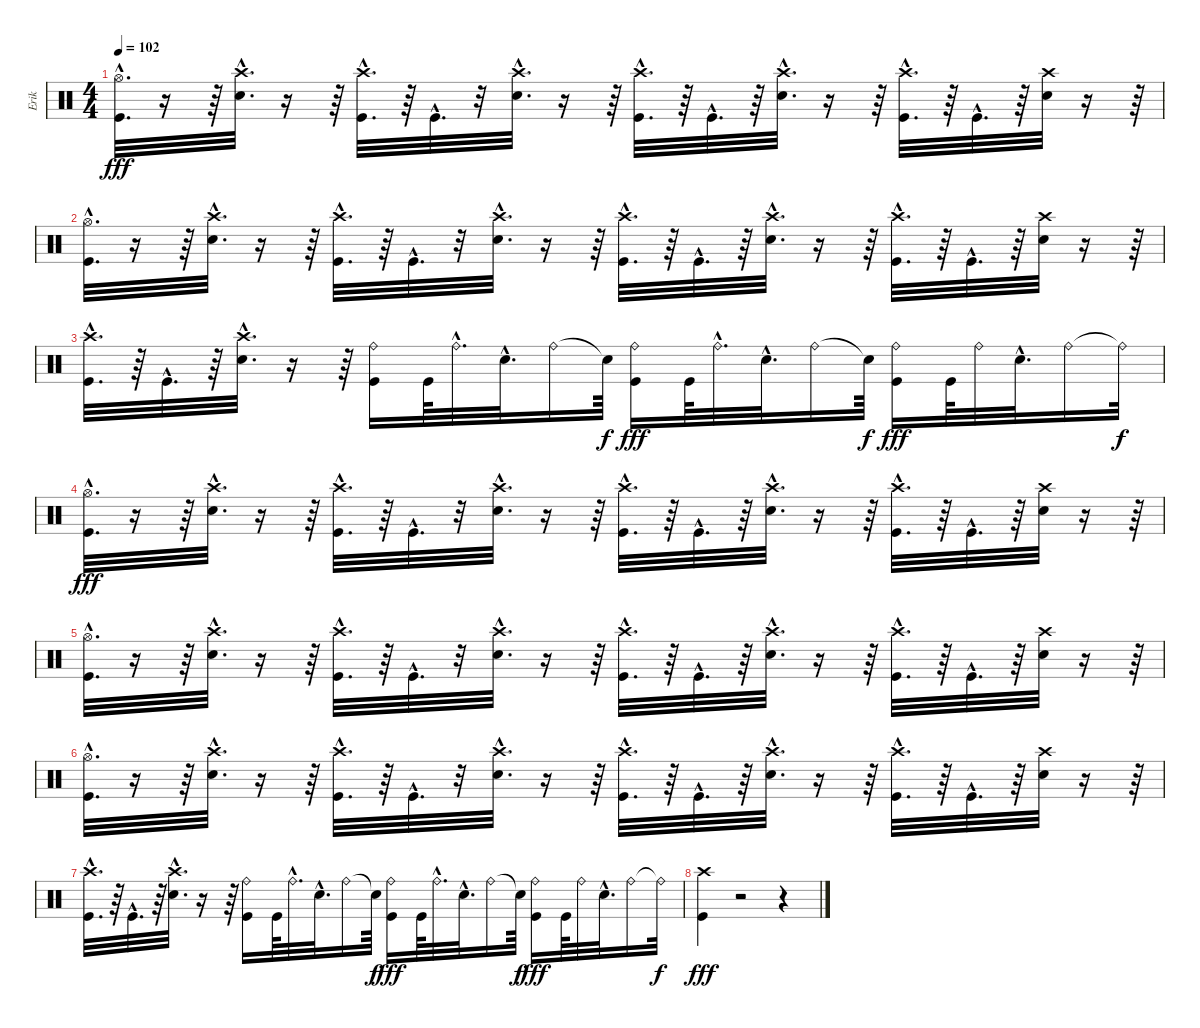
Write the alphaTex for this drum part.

\track ("Erik" "Erik") {instrument percussion}
\staff {score}
\articulation defaults
\ts (4 4)
\tempo 102
\clef neutral
\ks c
("Hi-Hat (open)"{hac} "Kick (hit)"{hac}).32{d dy fff} r.16{volume 8} r.64 ("Crash high (hit)"{hac} "Electric Snare (hit)"{hac}).32{d} r.16 r.64 ("Kick (hit)"{hac} "Crash high (hit)"{hac}).32{d} r.64 "Kick (hit)"{hac}.32{d} r.32 ("Crash high (hit)"{hac} "Electric Snare (hit)"{hac}).32{d} r.16 r.64 ("Crash high (hit)"{hac} "Kick (hit)"{hac}).32{d} r.64 "Kick (hit)"{hac}.32{d} r.64 ("Crash high (hit)"{hac} "Electric Snare (hit)"{hac}).32{d} r.16 r.64 ("Kick (hit)"{hac} "Crash high (hit)"{hac}).32{d} r.64 "Kick (hit)"{hac}.32{d} r.64 ("Electric Snare (hit)" "Crash high (hit)").32 r.16 r.64 |
("Hi-Hat (open)"{hac} "Kick (hit)"{hac}).32{d} r.16 r.64 ("Crash high (hit)"{hac} "Electric Snare (hit)"{hac}).32{d} r.16 r.64 ("Kick (hit)"{hac} "Crash high (hit)"{hac}).32{d} r.64 "Kick (hit)"{hac}.32{d} r.32 ("Crash high (hit)"{hac} "Electric Snare (hit)"{hac}).32{d} r.16 r.64 ("Crash high (hit)"{hac} "Kick (hit)"{hac}).32{d} r.64 "Kick (hit)"{hac}.32{d} r.64 ("Crash high (hit)"{hac} "Electric Snare (hit)"{hac}).32{d} r.16 r.64 ("Kick (hit)"{hac} "Crash high (hit)"{hac}).32{d} r.64 "Kick (hit)"{hac}.32{d} r.64 ("Electric Snare (hit)" "Crash high (hit)").32 r.16 r.64 |
("Crash high (hit)"{hac} "Kick (hit)"{hac}).32{d} r.64 "Kick (hit)"{hac}.32{d} r.64 ("Crash high (hit)"{hac} "Electric Snare (hit)"{hac}).32{d} r.16 r.64 ("Kick (hit)" "Ride (bell)").16 "Kick (hit)".64 "Ride (bell)"{hac}.32{d} "Electric Snare (hit)"{hac}.32{d} "Ride (bell)".16 "Snare (hit)"{t}.64{dy f} ("Ride (bell)" "Kick (hit)").16{dy fff} "Kick (hit)".64 "Ride (bell)"{hac}.32{d} "Electric Snare (hit)"{hac}.32{d} "Ride (bell)".16 "Snare (hit)"{t}.64{dy f} ("Ride (bell)" "Kick (hit)").16{dy fff} "Kick (hit)".64 "Ride (bell)".32 "Electric Snare (hit)"{hac}.32{d} "Ride (bell)".16 "Ride (bell)"{t}.32{dy f} |
("Hi-Hat (open)"{hac} "Kick (hit)"{hac}).32{d dy fff} r.16 r.64 ("Crash high (hit)"{hac} "Electric Snare (hit)"{hac}).32{d} r.16 r.64 ("Kick (hit)"{hac} "Crash high (hit)"{hac}).32{d} r.64 "Kick (hit)"{hac}.32{d} r.32 ("Crash high (hit)"{hac} "Electric Snare (hit)"{hac}).32{d} r.16 r.64 ("Crash high (hit)"{hac} "Kick (hit)"{hac}).32{d} r.64 "Kick (hit)"{hac}.32{d} r.64 ("Crash high (hit)"{hac} "Electric Snare (hit)"{hac}).32{d} r.16 r.64 ("Kick (hit)"{hac} "Crash high (hit)"{hac}).32{d} r.64 "Kick (hit)"{hac}.32{d} r.64 ("Electric Snare (hit)" "Crash high (hit)").32 r.16 r.64 |
("Hi-Hat (open)"{hac} "Kick (hit)"{hac}).32{d} r.16 r.64 ("Crash high (hit)"{hac} "Electric Snare (hit)"{hac}).32{d} r.16 r.64 ("Kick (hit)"{hac} "Crash high (hit)"{hac}).32{d} r.64 "Kick (hit)"{hac}.32{d} r.32 ("Crash high (hit)"{hac} "Electric Snare (hit)"{hac}).32{d} r.16 r.64 ("Crash high (hit)"{hac} "Kick (hit)"{hac}).32{d} r.64 "Kick (hit)"{hac}.32{d} r.64 ("Crash high (hit)"{hac} "Electric Snare (hit)"{hac}).32{d} r.16 r.64 ("Kick (hit)"{hac} "Crash high (hit)"{hac}).32{d} r.64 "Kick (hit)"{hac}.32{d} r.64 ("Electric Snare (hit)" "Crash high (hit)").32 r.16 r.64 |
("Hi-Hat (open)"{hac} "Kick (hit)"{hac}).32{d} r.16 r.64 ("Crash high (hit)"{hac} "Electric Snare (hit)"{hac}).32{d} r.16 r.64 ("Kick (hit)"{hac} "Crash high (hit)"{hac}).32{d} r.64 "Kick (hit)"{hac}.32{d} r.32 ("Crash high (hit)"{hac} "Electric Snare (hit)"{hac}).32{d} r.16 r.64 ("Crash high (hit)"{hac} "Kick (hit)"{hac}).32{d} r.64 "Kick (hit)"{hac}.32{d} r.64 ("Crash high (hit)"{hac} "Electric Snare (hit)"{hac}).32{d} r.16 r.64 ("Kick (hit)"{hac} "Crash high (hit)"{hac}).32{d} r.64 "Kick (hit)"{hac}.32{d} r.64 ("Electric Snare (hit)" "Crash high (hit)").32 r.16 r.64 |
("Crash high (hit)"{hac} "Kick (hit)"{hac}).32{d} r.64 "Kick (hit)"{hac}.32{d} r.64 ("Crash high (hit)"{hac} "Electric Snare (hit)"{hac}).32{d} r.16 r.64 ("Kick (hit)" "Ride (bell)").16 "Kick (hit)".64 "Ride (bell)"{hac}.32{d} "Electric Snare (hit)"{hac}.32{d} "Ride (bell)".16 "Snare (hit)"{t}.64{dy f} ("Ride (bell)" "Kick (hit)").16{dy fff} "Kick (hit)".64 "Ride (bell)"{hac}.32{d} "Electric Snare (hit)"{hac}.32{d} "Ride (bell)".16 "Snare (hit)"{t}.64{dy f} ("Ride (bell)" "Kick (hit)").16{dy fff} "Kick (hit)".64 "Ride (bell)".32 "Electric Snare (hit)"{hac}.32{d} "Ride (bell)".16 "Ride (bell)"{t}.32{dy f} |
("Kick (hit)" "Crash high (hit)").4{dy fff} r.2 r.4
